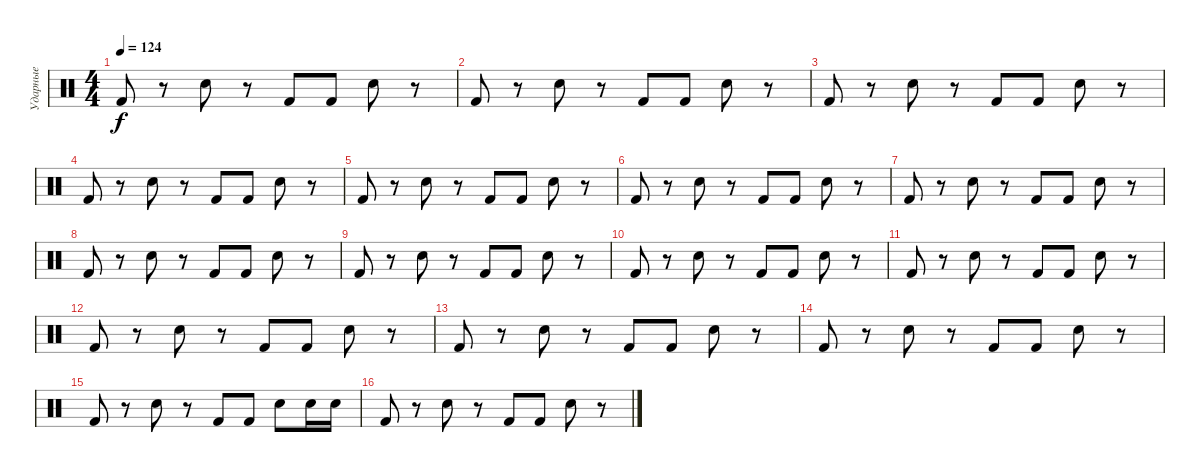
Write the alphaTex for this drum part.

\track ("Ударные" "Ударные") {instrument percussion}
\staff {score}
\articulation defaults
\ts (4 4)
\tempo 124
\clef neutral
\ks c "Kick (hit) 2".8{dy f}
r.8 "Snare (hit) 2".8 r.8 "Kick (hit) 2".8 "Kick (hit) 2".8 "Snare (hit) 2".8 r.8 |
"Kick (hit) 2".8 r.8 "Snare (hit) 2".8 r.8 "Kick (hit) 2".8 "Kick (hit) 2".8 "Snare (hit) 2".8 r.8 |
"Kick (hit) 2".8 r.8 "Snare (hit) 2".8 r.8 "Kick (hit) 2".8 "Kick (hit) 2".8 "Snare (hit) 2".8 r.8 |
"Kick (hit) 2".8 r.8 "Snare (hit) 2".8 r.8 "Kick (hit) 2".8 "Kick (hit) 2".8 "Snare (hit) 2".8 r.8 |
"Kick (hit) 2".8 r.8 "Snare (hit) 2".8 r.8 "Kick (hit) 2".8 "Kick (hit) 2".8 "Snare (hit) 2".8 r.8 |
"Kick (hit) 2".8 r.8 "Snare (hit) 2".8 r.8 "Kick (hit) 2".8 "Kick (hit) 2".8 "Snare (hit) 2".8 r.8 |
"Kick (hit) 2".8 r.8 "Snare (hit) 2".8 r.8 "Kick (hit) 2".8 "Kick (hit) 2".8 "Snare (hit) 2".8 r.8 |
"Kick (hit) 2".8 r.8 "Snare (hit) 2".8 r.8 "Kick (hit) 2".8 "Kick (hit) 2".8 "Snare (hit) 2".8 r.8 |
"Kick (hit) 2".8 r.8 "Snare (hit) 2".8 r.8 "Kick (hit) 2".8 "Kick (hit) 2".8 "Snare (hit) 2".8 r.8 |
"Kick (hit) 2".8 r.8 "Snare (hit) 2".8 r.8 "Kick (hit) 2".8 "Kick (hit) 2".8 "Snare (hit) 2".8 r.8 |
"Kick (hit) 2".8 r.8 "Snare (hit) 2".8 r.8 "Kick (hit) 2".8 "Kick (hit) 2".8 "Snare (hit) 2".8 r.8 |
"Kick (hit) 2".8 r.8 "Snare (hit) 2".8 r.8 "Kick (hit) 2".8 "Kick (hit) 2".8 "Snare (hit) 2".8 r.8 |
"Kick (hit) 2".8 r.8 "Snare (hit) 2".8 r.8 "Kick (hit) 2".8 "Kick (hit) 2".8 "Snare (hit) 2".8 r.8 |
"Kick (hit) 2".8 r.8 "Snare (hit) 2".8 r.8 "Kick (hit) 2".8 "Kick (hit) 2".8 "Snare (hit) 2".8 r.8 |
"Kick (hit) 2".8 r.8 "Snare (hit) 2".8 r.8 "Kick (hit) 2".8 "Kick (hit) 2".8 "Snare (hit) 2".8 "Snare (hit) 2".16 "Snare (hit) 2".16 |
"Kick (hit) 2".8 r.8 "Snare (hit) 2".8 r.8 "Kick (hit) 2".8 "Kick (hit) 2".8 "Snare (hit) 2".8 r.8
